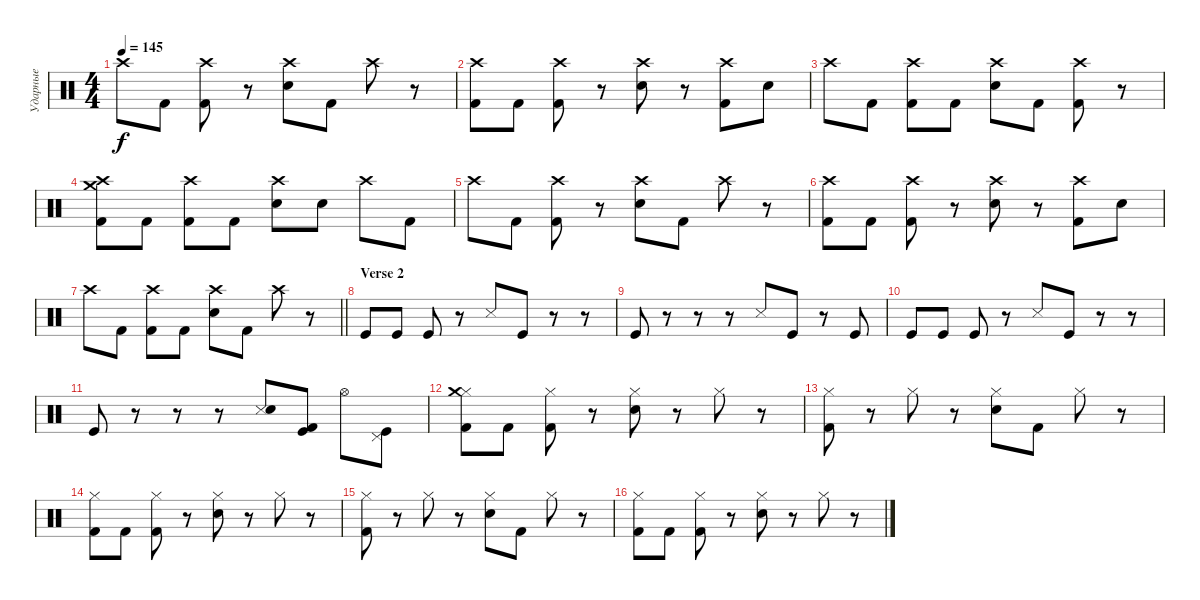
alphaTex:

\track ("Ударные" "Ударные") {instrument percussion}
\staff {score}
\articulation defaults
\ts (4 4)
\tempo 145
\clef neutral
\ks c "Crash high (hit)".8{dy f} "Kick (hit) 2".8
("Crash high (hit)" "Kick (hit) 2").8 r.8 ("Crash high (hit)" "Snare (hit) 2").8 "Kick (hit) 2".8 "Crash high (hit)".8 r.8 |
("Crash high (hit)" "Kick (hit) 2").8 "Kick (hit) 2".8 ("Crash high (hit)" "Kick (hit) 2").8 r.8 ("Crash high (hit)" "Snare (hit) 2").8 r.8 ("Crash high (hit)" "Kick (hit) 2").8 "Snare (hit) 2".8 |
"Crash high (hit)".8 "Kick (hit) 2".8 ("Crash high (hit)" "Kick (hit) 2").8 "Kick (hit) 2".8 ("Crash high (hit)" "Snare (hit) 2").8 "Kick (hit) 2".8 ("Crash high (hit)" "Kick (hit) 2").8 r.8 |
("Crash medium (hit)" "Crash high (hit)" "Kick (hit) 2").8 "Kick (hit) 2".8 ("Crash high (hit)" "Kick (hit) 2").8 "Kick (hit) 2".8 ("Crash high (hit)" "Snare (hit) 2").8 "Snare (hit) 2".8 "Crash high (hit)".8 "Kick (hit) 2".8 |
"Crash high (hit)".8 "Kick (hit) 2".8 ("Crash high (hit)" "Kick (hit) 2").8 r.8 ("Crash high (hit)" "Snare (hit) 2").8 "Kick (hit) 2".8 "Crash high (hit)".8 r.8 |
("Crash high (hit)" "Kick (hit) 2").8 "Kick (hit) 2".8 ("Crash high (hit)" "Kick (hit) 2").8 r.8 ("Crash high (hit)" "Snare (hit) 2").8 r.8 ("Crash high (hit)" "Kick (hit) 2").8 "Snare (hit) 2".8 |
\barLineRight lightlight "Crash high (hit)".8 "Kick (hit) 2".8
("Crash high (hit)" "Kick (hit) 2").8 "Kick (hit) 2".8 ("Crash high (hit)" "Snare (hit) 2").8 "Kick (hit) 2".8 "Crash high (hit)".8 r.8 |
\section ("" "Verse 2")
"Kick (hit)".8 "Kick (hit)".8 "Kick (hit)".8 r.8 "Snare (side stick) 3".8 "Kick (hit)".8 r.8 r.8 |
"Kick (hit)".8 r.8 r.8 r.8 "Snare (side stick) 3".8 "Kick (hit)".8 r.8 "Kick (hit)".8 |
"Kick (hit)".8 "Kick (hit)".8 "Kick (hit)".8 r.8 "Snare (side stick) 3".8 "Kick (hit)".8 r.8 r.8 |
"Kick (hit)".8 r.8 r.8 r.8 ("Snare (side stick) 3" "Snare (hit) 2").8 ("Kick (hit)" "Kick (hit) 2").8 "Hi-Hat (open)".8 ("Kick (hit)" "Pedal Hi-Hat (hit)").8 |
("Hi-Hat (closed)" "Crash medium (hit)" "Kick (hit) 2").8 "Kick (hit) 2".8 ("Hi-Hat (closed)" "Kick (hit) 2").8 r.8 ("Hi-Hat (closed)" "Snare (hit) 2").8 r.8 "Hi-Hat (closed)".8 r.8 |
("Hi-Hat (closed)" "Kick (hit) 2").8 r.8 "Hi-Hat (closed)".8 r.8 ("Hi-Hat (closed)" "Snare (hit) 2").8 "Kick (hit) 2".8 "Hi-Hat (closed)".8 r.8 |
("Hi-Hat (closed)" "Kick (hit) 2").8 "Kick (hit) 2".8 ("Hi-Hat (closed)" "Kick (hit) 2").8 r.8 ("Hi-Hat (closed)" "Snare (hit) 2").8 r.8 "Hi-Hat (closed)".8 r.8 |
("Hi-Hat (closed)" "Kick (hit) 2").8 r.8 "Hi-Hat (closed)".8 r.8 ("Hi-Hat (closed)" "Snare (hit) 2").8 "Kick (hit) 2".8 "Hi-Hat (closed)".8 r.8 |
("Hi-Hat (closed)" "Kick (hit) 2").8 "Kick (hit) 2".8 ("Hi-Hat (closed)" "Kick (hit) 2").8 r.8 ("Hi-Hat (closed)" "Snare (hit) 2").8 r.8 "Hi-Hat (closed)".8 r.8
